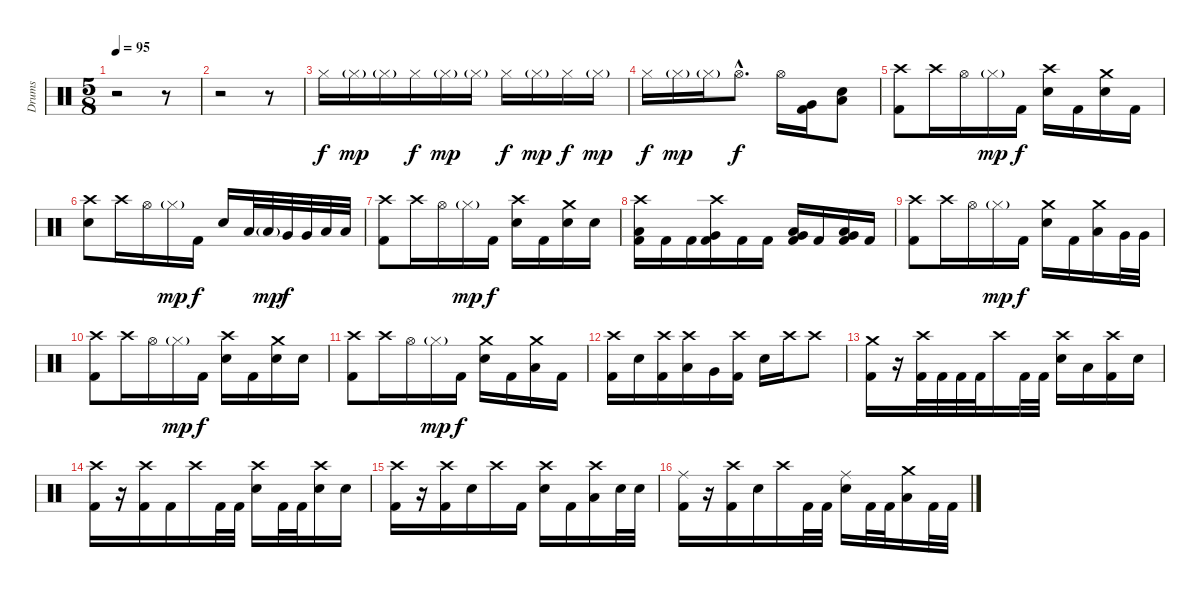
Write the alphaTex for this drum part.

\track ("Drums" "Drums") {instrument percussion}
\staff {score}
\articulation defaults
\ts (5 8)
\tempo 95
\clef neutral
\ks c
r.2{dy f} r.8 |
r.2 r.8 |
"Hi-Hat (closed)".16 "Hi-Hat (closed)"{g}.16{dy mp} "Hi-Hat (closed)"{g}.16 "Hi-Hat (closed)".16{dy f} "Hi-Hat (closed)"{g}.16{dy mp} "Hi-Hat (closed)"{g}.16 "Hi-Hat (closed)".16{dy f} "Hi-Hat (closed)"{g}.16{dy mp} "Hi-Hat (closed)".16{dy f} "Hi-Hat (closed)"{g}.16{dy mp} |
"Hi-Hat (closed)".16{dy f} "Hi-Hat (closed)"{g}.16{dy mp} "Hi-Hat (closed)"{g}.16 "Hi-Hat (open)"{hac}.8{d dy f} "Hi-Hat (open)".16 ("Very Low Tom (hit)" "Kick (hit) 2").16 ("Low Tom (hit)" "Snare (hit) 2").8 |
("Crash high (hit)" "Kick (hit) 2").8 "Crash high (hit)".16 "Hi-Hat (open)".16 "Hi-Hat (closed)"{g}.16{dy mp} "Kick (hit) 2".16{dy f} ("Crash high (hit)" "Snare (hit) 2").16 "Kick (hit) 2".16 ("Crash medium (hit)" "Snare (hit) 2").16 "Kick (hit) 2".16 |
("Crash high (hit)" "Snare (hit) 2").8 "Crash high (hit)".16 "Hi-Hat (open)".16 "Hi-Hat (closed)"{g}.16{dy mp} "Kick (hit) 2".16{dy f} "Snare (hit) 2".16 "Low Tom (hit)".32 "Low Tom (hit)"{g}.32{dy mp} "Very Low Tom (hit)".32{dy f} "Very Low Tom (hit)".32 "Low Floor Tom (hit)".32 "Low Floor Tom (hit)".32 |
("Crash high (hit)" "Kick (hit) 2").8 "Crash high (hit)".16 "Hi-Hat (open)".16 "Hi-Hat (closed)"{g}.16{dy mp} "Kick (hit) 2".16{dy f} ("Crash high (hit)" "Snare (hit) 2").16 "Kick (hit) 2".16 ("Crash medium (hit)" "Snare (hit) 2").16 "Snare (hit) 2".16 |
("Crash high (hit)" "Low Tom (hit)" "Kick (hit) 2").16 "Kick (hit) 2".16 "Kick (hit) 2".16 ("Crash high (hit)" "Very Low Tom (hit)" "Kick (hit) 2").16 "Kick (hit) 2".16 "Kick (hit) 2".16 ("Low Tom (hit)" "Very Low Tom (hit)" "Kick (hit) 2").16 "Kick (hit) 2".16 ("Very Low Tom (hit)" "Low Floor Tom (hit)" "Kick (hit) 2").16 "Kick (hit) 2".16 |
("Crash high (hit)" "Kick (hit) 2").8 "Crash high (hit)".16 "Hi-Hat (open)".16 "Hi-Hat (closed)"{g}.16{dy mp} "Kick (hit) 2".16{dy f} ("Crash medium (hit)" "Snare (hit) 2").16 "Kick (hit) 2".16 ("Crash medium (hit)" "Low Tom (hit)").16 "Very Low Tom (hit)".32 "Very Low Tom (hit)".32 |
("Crash high (hit)" "Kick (hit) 2").8 "Crash high (hit)".16 "Hi-Hat (open)".16 "Hi-Hat (closed)"{g}.16{dy mp} "Kick (hit) 2".16{dy f} ("Crash high (hit)" "Snare (hit) 2").16 "Kick (hit) 2".16 ("Crash medium (hit)" "Snare (hit) 2").16 "Snare (hit) 2".16 |
("Crash high (hit)" "Kick (hit) 2").8 "Crash high (hit)".16 "Hi-Hat (open)".16 "Hi-Hat (closed)"{g}.16{dy mp} "Kick (hit) 2".16{dy f} ("Crash medium (hit)" "Snare (hit) 2").16 "Kick (hit) 2".16 ("Crash medium (hit)" "Low Tom (hit)").16 "Kick (hit) 2".16 |
("Crash high (hit)" "Kick (hit) 2").16 "Snare (hit) 2".16 ("Crash high (hit)" "Kick (hit) 2").16 ("Crash high (hit)" "Low Tom (hit)").16 "Very Low Tom (hit)".16 ("Crash high (hit)" "Kick (hit) 2").16 "Snare (hit) 2".16 "Crash high (hit)".16 "Crash high (hit)".8 |
("Crash medium (hit)" "Kick (hit) 2").16 r.16 ("Crash high (hit)" "Kick (hit) 2").32 "Kick (hit) 2".32 "Kick (hit) 2".32 "Kick (hit) 2".32 "Crash high (hit)".16 "Kick (hit) 2".32 "Kick (hit) 2".32 ("Crash high (hit)" "Snare (hit) 2").16 "Low Tom (hit)".16 ("Crash high (hit)" "Kick (hit) 2").16 "Snare (hit) 2".16 |
("Crash high (hit)" "Kick (hit) 2").16 r.16 ("Crash high (hit)" "Kick (hit) 2").16 "Kick (hit) 2".16 "Crash high (hit)".16 "Kick (hit) 2".32 "Kick (hit) 2".32 ("Crash high (hit)" "Snare (hit) 2").16 "Kick (hit) 2".32 "Kick (hit) 2".32 ("Crash high (hit)" "Snare (hit) 2").16 "Snare (hit) 2".16 |
("Crash high (hit)" "Kick (hit) 2").16 r.16 ("Crash high (hit)" "Kick (hit) 2").16 "Snare (hit) 2".16 "Crash high (hit)".16 "Kick (hit) 2".16 ("Crash high (hit)" "Snare (hit) 2").16 "Kick (hit) 2".16 ("Crash high (hit)" "Low Tom (hit)").16 "Snare (hit) 2".32 "Snare (hit) 2".32 |
("Ride (middle)" "Kick (hit) 2").16 r.16 ("Crash high (hit)" "Kick (hit) 2").16 "Snare (hit) 2".16 "Crash high (hit)".16 "Kick (hit) 2".32 "Kick (hit) 2".32 ("Ride (middle)" "Snare (hit) 2").16 "Kick (hit) 2".32 "Kick (hit) 2".32 ("Crash medium (hit)" "Low Tom (hit)").16 "Kick (hit) 2".32 "Kick (hit) 2".32
